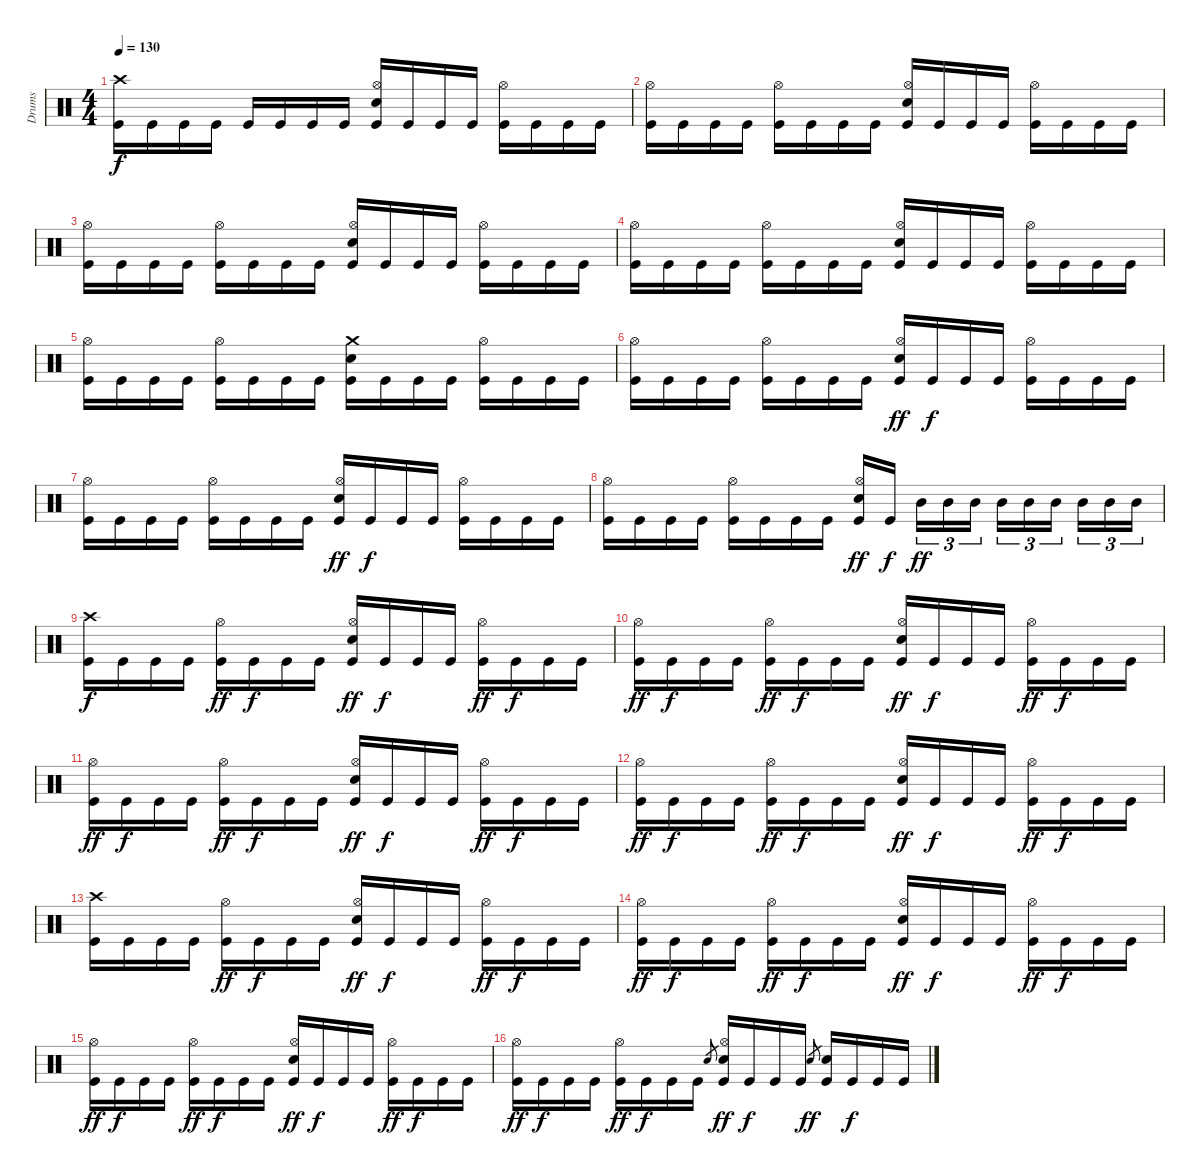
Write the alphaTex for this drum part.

\track ("Drums" "Drums") {instrument percussion}
\staff {score}
\articulation defaults
\ts (4 4)
\tempo 130
\clef neutral
\ks c
("Crash high (hit)" "Kick (hit)").16{dy f} "Kick (hit)".16 "Kick (hit)".16 "Kick (hit)".16 "Kick (hit)".16 "Kick (hit)".16 "Kick (hit)".16 "Kick (hit)".16 ("Hi-Hat (open)" "Snare (hit) 2" "Kick (hit)").16 "Kick (hit)".16 "Kick (hit)".16 "Kick (hit)".16 ("Hi-Hat (open)" "Kick (hit)").16 "Kick (hit)".16 "Kick (hit)".16 "Kick (hit)".16 |
("Hi-Hat (open)" "Kick (hit)").16 "Kick (hit)".16 "Kick (hit)".16 "Kick (hit)".16 ("Hi-Hat (open)" "Kick (hit)").16 "Kick (hit)".16 "Kick (hit)".16 "Kick (hit)".16 ("Hi-Hat (open)" "Snare (hit) 2" "Kick (hit)").16 "Kick (hit)".16 "Kick (hit)".16 "Kick (hit)".16 ("Hi-Hat (open)" "Kick (hit)").16 "Kick (hit)".16 "Kick (hit)".16 "Kick (hit)".16 |
("Hi-Hat (open)" "Kick (hit)").16 "Kick (hit)".16 "Kick (hit)".16 "Kick (hit)".16 ("Hi-Hat (open)" "Kick (hit)").16 "Kick (hit)".16 "Kick (hit)".16 "Kick (hit)".16 ("Hi-Hat (open)" "Snare (hit) 2" "Kick (hit)").16 "Kick (hit)".16 "Kick (hit)".16 "Kick (hit)".16 ("Hi-Hat (open)" "Kick (hit)").16 "Kick (hit)".16 "Kick (hit)".16 "Kick (hit)".16 |
("Hi-Hat (open)" "Kick (hit)").16 "Kick (hit)".16 "Kick (hit)".16 "Kick (hit)".16 ("Hi-Hat (open)" "Kick (hit)").16 "Kick (hit)".16 "Kick (hit)".16 "Kick (hit)".16 ("Hi-Hat (open)" "Snare (hit) 2" "Kick (hit)").16 "Kick (hit)".16 "Kick (hit)".16 "Kick (hit)".16 ("Hi-Hat (open)" "Kick (hit)").16 "Kick (hit)".16 "Kick (hit)".16 "Kick (hit)".16 |
("Hi-Hat (open)" "Kick (hit)").16 "Kick (hit)".16 "Kick (hit)".16 "Kick (hit)".16 ("Hi-Hat (open)" "Kick (hit)").16 "Kick (hit)".16 "Kick (hit)".16 "Kick (hit)".16 ("Crash medium (hit)" "Snare (hit) 2" "Kick (hit)").16 "Kick (hit)".16 "Kick (hit)".16 "Kick (hit)".16 ("Hi-Hat (open)" "Kick (hit)").16 "Kick (hit)".16 "Kick (hit)".16 "Kick (hit)".16 |
("Hi-Hat (open)" "Kick (hit)").16 "Kick (hit)".16 "Kick (hit)".16 "Kick (hit)".16 ("Hi-Hat (open)" "Kick (hit)").16 "Kick (hit)".16 "Kick (hit)".16 "Kick (hit)".16 ("Hi-Hat (open)" "Snare (hit) 2" "Kick (hit)").16{dy ff} "Kick (hit)".16{dy f} "Kick (hit)".16 "Kick (hit)".16 ("Hi-Hat (open)" "Kick (hit)").16 "Kick (hit)".16 "Kick (hit)".16 "Kick (hit)".16 |
("Hi-Hat (open)" "Kick (hit)").16 "Kick (hit)".16 "Kick (hit)".16 "Kick (hit)".16 ("Hi-Hat (open)" "Kick (hit)").16 "Kick (hit)".16 "Kick (hit)".16 "Kick (hit)".16 ("Hi-Hat (open)" "Snare (hit) 2" "Kick (hit)").16{dy ff} "Kick (hit)".16{dy f} "Kick (hit)".16 "Kick (hit)".16 ("Hi-Hat (open)" "Kick (hit)").16 "Kick (hit)".16 "Kick (hit)".16 "Kick (hit)".16 |
("Hi-Hat (open)" "Kick (hit)").16 "Kick (hit)".16 "Kick (hit)".16 "Kick (hit)".16 ("Hi-Hat (open)" "Kick (hit)").16 "Kick (hit)".16 "Kick (hit)".16 "Kick (hit)".16 ("Hi-Hat (open)" "Snare (hit) 2" "Kick (hit)").16{dy ff} "Kick (hit)".16{dy f beam splitsecondary} "Mid Tom (hit)".16{tu (3 2) dy ff} "Mid Tom (hit)".16{tu (3 2)} "Mid Tom (hit)".16{tu (3 2)} "Mid Tom (hit)".16{tu (3 2)} "Mid Tom (hit)".16{tu (3 2)} "Mid Tom (hit)".16{tu (3 2) beam splitsecondary} "Mid Tom (hit)".16{tu (3 2)} "Mid Tom (hit)".16{tu (3 2)} "Mid Tom (hit)".16{tu (3 2)} |
("Crash high (hit)" "Kick (hit)").16{dy f} "Kick (hit)".16 "Kick (hit)".16 "Kick (hit)".16 ("Hi-Hat (open)" "Kick (hit)").16{dy ff} "Kick (hit)".16{dy f} "Kick (hit)".16 "Kick (hit)".16 ("Hi-Hat (open)" "Snare (hit) 2" "Kick (hit)").16{dy ff} "Kick (hit)".16{dy f} "Kick (hit)".16 "Kick (hit)".16 ("Hi-Hat (open)" "Kick (hit)").16{dy ff} "Kick (hit)".16{dy f} "Kick (hit)".16 "Kick (hit)".16 |
("Hi-Hat (open)" "Kick (hit)").16{dy ff} "Kick (hit)".16{dy f} "Kick (hit)".16 "Kick (hit)".16 ("Hi-Hat (open)" "Kick (hit)").16{dy ff} "Kick (hit)".16{dy f} "Kick (hit)".16 "Kick (hit)".16 ("Hi-Hat (open)" "Snare (hit) 2" "Kick (hit)").16{dy ff} "Kick (hit)".16{dy f} "Kick (hit)".16 "Kick (hit)".16 ("Hi-Hat (open)" "Kick (hit)").16{dy ff} "Kick (hit)".16{dy f} "Kick (hit)".16 "Kick (hit)".16 |
("Hi-Hat (open)" "Kick (hit)").16{dy ff} "Kick (hit)".16{dy f} "Kick (hit)".16 "Kick (hit)".16 ("Hi-Hat (open)" "Kick (hit)").16{dy ff} "Kick (hit)".16{dy f} "Kick (hit)".16 "Kick (hit)".16 ("Hi-Hat (open)" "Snare (hit) 2" "Kick (hit)").16{dy ff} "Kick (hit)".16{dy f} "Kick (hit)".16 "Kick (hit)".16 ("Hi-Hat (open)" "Kick (hit)").16{dy ff} "Kick (hit)".16{dy f} "Kick (hit)".16 "Kick (hit)".16 |
("Hi-Hat (open)" "Kick (hit)").16{dy ff} "Kick (hit)".16{dy f} "Kick (hit)".16 "Kick (hit)".16 ("Hi-Hat (open)" "Kick (hit)").16{dy ff} "Kick (hit)".16{dy f} "Kick (hit)".16 "Kick (hit)".16 ("Hi-Hat (open)" "Snare (hit) 2" "Kick (hit)").16{dy ff} "Kick (hit)".16{dy f} "Kick (hit)".16 "Kick (hit)".16 ("Hi-Hat (open)" "Kick (hit)").16{dy ff} "Kick (hit)".16{dy f} "Kick (hit)".16 "Kick (hit)".16 |
("Crash high (hit)" "Kick (hit)").16 "Kick (hit)".16 "Kick (hit)".16 "Kick (hit)".16 ("Hi-Hat (open)" "Kick (hit)").16{dy ff} "Kick (hit)".16{dy f} "Kick (hit)".16 "Kick (hit)".16 ("Hi-Hat (open)" "Snare (hit) 2" "Kick (hit)").16{dy ff} "Kick (hit)".16{dy f} "Kick (hit)".16 "Kick (hit)".16 ("Hi-Hat (open)" "Kick (hit)").16{dy ff} "Kick (hit)".16{dy f} "Kick (hit)".16 "Kick (hit)".16 |
("Hi-Hat (open)" "Kick (hit)").16{dy ff} "Kick (hit)".16{dy f} "Kick (hit)".16 "Kick (hit)".16 ("Hi-Hat (open)" "Kick (hit)").16{dy ff} "Kick (hit)".16{dy f} "Kick (hit)".16 "Kick (hit)".16 ("Hi-Hat (open)" "Snare (hit) 2" "Kick (hit)").16{dy ff} "Kick (hit)".16{dy f} "Kick (hit)".16 "Kick (hit)".16 ("Hi-Hat (open)" "Kick (hit)").16{dy ff} "Kick (hit)".16{dy f} "Kick (hit)".16 "Kick (hit)".16 |
("Hi-Hat (open)" "Kick (hit)").16{dy ff} "Kick (hit)".16{dy f} "Kick (hit)".16 "Kick (hit)".16 ("Hi-Hat (open)" "Kick (hit)").16{dy ff} "Kick (hit)".16{dy f} "Kick (hit)".16 "Kick (hit)".16 ("Hi-Hat (open)" "Snare (hit) 2" "Kick (hit)").16{dy ff} "Kick (hit)".16{dy f} "Kick (hit)".16 "Kick (hit)".16 ("Hi-Hat (open)" "Kick (hit)").16{dy ff} "Kick (hit)".16{dy f} "Kick (hit)".16 "Kick (hit)".16 |
("Hi-Hat (open)" "Kick (hit)").16{dy ff} "Kick (hit)".16{dy f} "Kick (hit)".16 "Kick (hit)".16 ("Hi-Hat (open)" "Kick (hit)").16{dy ff} "Kick (hit)".16{dy f} "Kick (hit)".16 "Kick (hit)".16 "Snare (hit) 2".8{gr} ("Hi-Hat (open)" "Snare (hit) 2" "Kick (hit)").16{dy ff} "Kick (hit)".16{dy f} "Kick (hit)".16 "Kick (hit)".16 "Snare (hit) 2".8{gr dy ff} ("Snare (hit) 2" "Kick (hit)").16 "Kick (hit)".16{dy f} "Kick (hit)".16 "Kick (hit)".16
